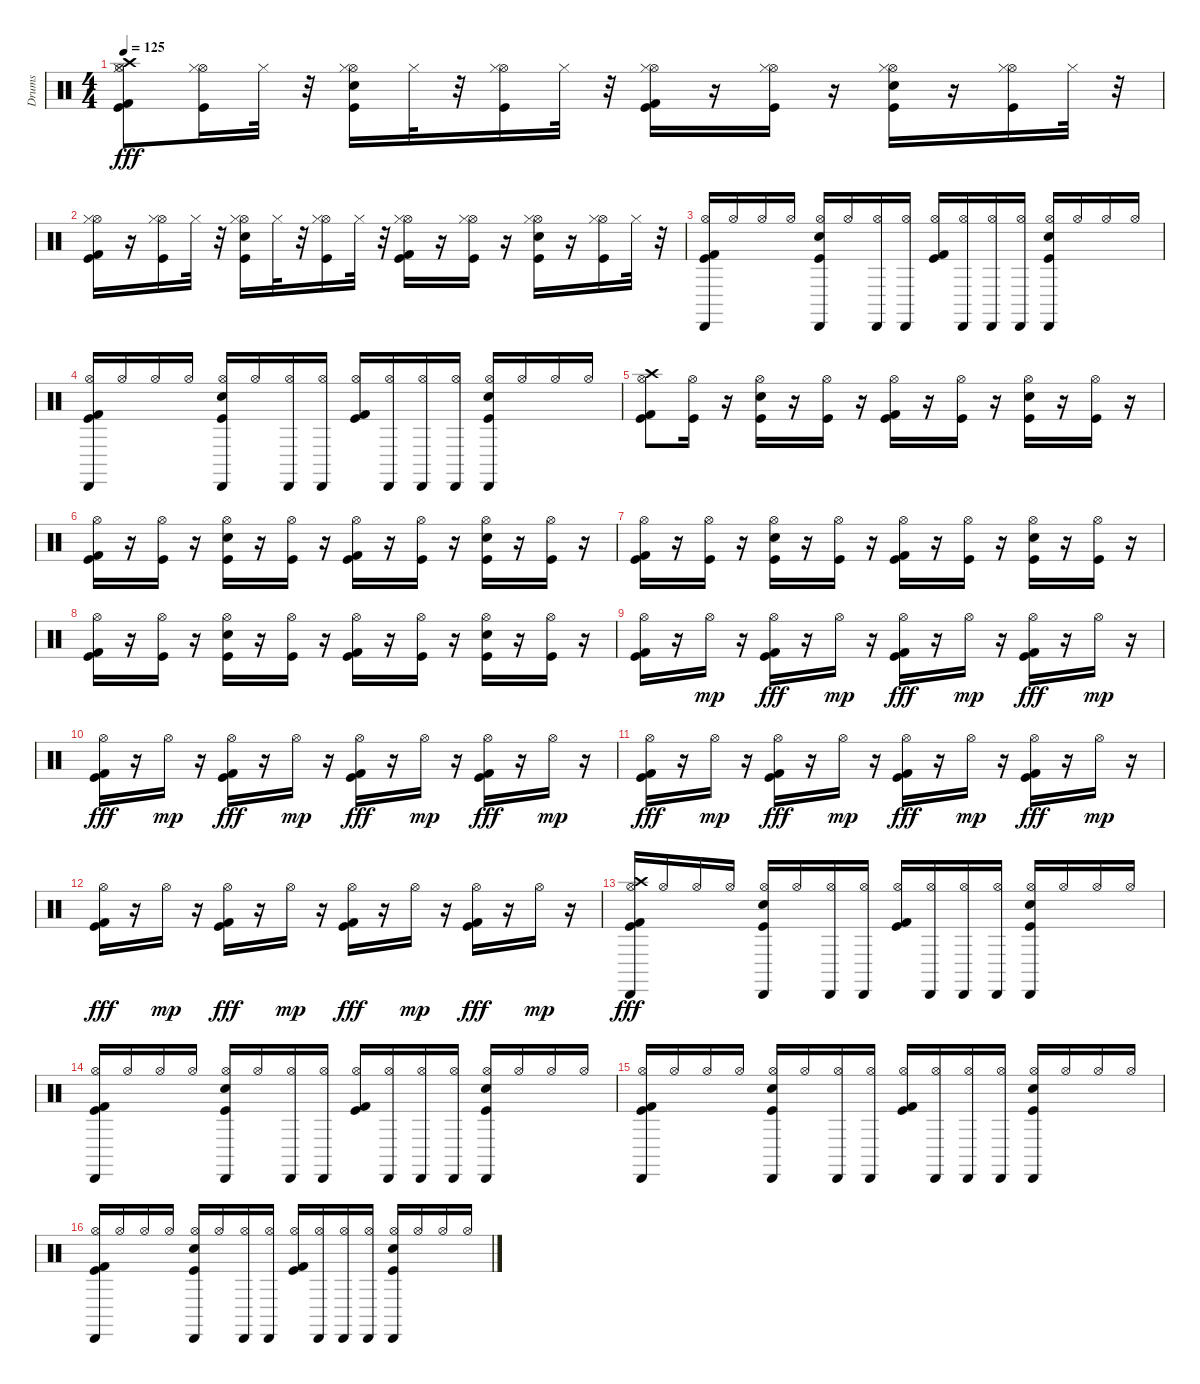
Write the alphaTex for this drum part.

\track ("Drums" "Drums") {instrument percussion}
\staff {score}
\articulation defaults
\ts (4 4)
\tempo 125
\clef neutral
\ks c
("Kick (hit)" "Kick (hit) 2" "Hi-Hat (open)" "Crash high (hit)" "Hi-Hat (closed)").8{dy fff} ("Kick (hit)" "Hi-Hat (open)" "Hi-Hat (closed)").16 "Hi-Hat (closed)".32 r.32 ("Kick (hit)" "Snare (hit) 2" "Hi-Hat (open)" "Hi-Hat (closed)").16 "Hi-Hat (closed)".32 r.32 ("Kick (hit)" "Hi-Hat (open)" "Hi-Hat (closed)").16 "Hi-Hat (closed)".32 r.32 ("Kick (hit)" "Kick (hit) 2" "Hi-Hat (open)" "Hi-Hat (closed)").16 r.16 ("Kick (hit)" "Hi-Hat (open)" "Hi-Hat (closed)").16 r.16 ("Kick (hit)" "Snare (hit) 2" "Hi-Hat (open)" "Hi-Hat (closed)").16 r.16 ("Kick (hit)" "Hi-Hat (open)" "Hi-Hat (closed)").16 "Hi-Hat (closed)".32 r.32 |
("Kick (hit)" "Kick (hit) 2" "Hi-Hat (open)" "Hi-Hat (closed)").16 r.16 ("Kick (hit)" "Hi-Hat (open)" "Hi-Hat (closed)").16 "Hi-Hat (closed)".32 r.32 ("Kick (hit)" "Snare (hit) 2" "Hi-Hat (open)" "Hi-Hat (closed)").16 "Hi-Hat (closed)".32 r.32 ("Kick (hit)" "Hi-Hat (open)" "Hi-Hat (closed)").16 "Hi-Hat (closed)".32 r.32 ("Kick (hit)" "Kick (hit) 2" "Hi-Hat (open)" "Hi-Hat (closed)").16 r.16 ("Kick (hit)" "Hi-Hat (open)" "Hi-Hat (closed)").16 r.16 ("Kick (hit)" "Snare (hit) 2" "Hi-Hat (open)" "Hi-Hat (closed)").16 r.16 ("Kick (hit)" "Hi-Hat (open)" "Hi-Hat (closed)").16 "Hi-Hat (closed)".32 r.32 |
("Kick (hit) 2" "Kick (hit)" "Cabasa (hit)" "Hi-Hat (open)").16 "Hi-Hat (open)".16 "Hi-Hat (open)".16 "Hi-Hat (open)".16 ("Kick (hit)" "Cabasa (hit)" "Snare (hit) 2" "Hi-Hat (open)").16 "Hi-Hat (open)".16 ("Cabasa (hit)" "Hi-Hat (open)").16 ("Cabasa (hit)" "Hi-Hat (open)").16 ("Kick (hit) 2" "Kick (hit)" "Hi-Hat (open)").16 ("Cabasa (hit)" "Hi-Hat (open)").16 ("Cabasa (hit)" "Hi-Hat (open)").16 ("Cabasa (hit)" "Hi-Hat (open)").16 ("Kick (hit)" "Cabasa (hit)" "Snare (hit) 2" "Hi-Hat (open)").16 "Hi-Hat (open)".16 "Hi-Hat (open)".16 "Hi-Hat (open)".16 |
("Kick (hit) 2" "Kick (hit)" "Cabasa (hit)" "Hi-Hat (open)").16 "Hi-Hat (open)".16 "Hi-Hat (open)".16 "Hi-Hat (open)".16 ("Kick (hit)" "Cabasa (hit)" "Snare (hit) 2" "Hi-Hat (open)").16 "Hi-Hat (open)".16 ("Cabasa (hit)" "Hi-Hat (open)").16 ("Cabasa (hit)" "Hi-Hat (open)").16 ("Kick (hit) 2" "Kick (hit)" "Hi-Hat (open)").16 ("Cabasa (hit)" "Hi-Hat (open)").16 ("Cabasa (hit)" "Hi-Hat (open)").16 ("Cabasa (hit)" "Hi-Hat (open)").16 ("Kick (hit)" "Cabasa (hit)" "Snare (hit) 2" "Hi-Hat (open)").16 "Hi-Hat (open)".16 "Hi-Hat (open)".16 "Hi-Hat (open)".16 |
("Kick (hit) 2" "Kick (hit)" "Hi-Hat (open)" "Crash high (hit)").8 ("Kick (hit)" "Hi-Hat (open)").16 r.16 ("Kick (hit)" "Snare (hit) 2" "Hi-Hat (open)").16 r.16 ("Kick (hit)" "Hi-Hat (open)").16 r.16 ("Kick (hit) 2" "Kick (hit)" "Hi-Hat (open)").16 r.16 ("Kick (hit)" "Hi-Hat (open)").16 r.16 ("Kick (hit)" "Snare (hit) 2" "Hi-Hat (open)").16 r.16 ("Kick (hit)" "Hi-Hat (open)").16 r.16 |
("Kick (hit) 2" "Kick (hit)" "Hi-Hat (open)").16 r.16 ("Kick (hit)" "Hi-Hat (open)").16 r.16 ("Kick (hit)" "Snare (hit) 2" "Hi-Hat (open)").16 r.16 ("Kick (hit)" "Hi-Hat (open)").16 r.16 ("Kick (hit) 2" "Kick (hit)" "Hi-Hat (open)").16 r.16 ("Kick (hit)" "Hi-Hat (open)").16 r.16 ("Kick (hit)" "Snare (hit) 2" "Hi-Hat (open)").16 r.16 ("Kick (hit)" "Hi-Hat (open)").16 r.16 |
("Kick (hit) 2" "Kick (hit)" "Hi-Hat (open)").16 r.16 ("Kick (hit)" "Hi-Hat (open)").16 r.16 ("Kick (hit)" "Snare (hit) 2" "Hi-Hat (open)").16 r.16 ("Kick (hit)" "Hi-Hat (open)").16 r.16 ("Kick (hit) 2" "Kick (hit)" "Hi-Hat (open)").16 r.16 ("Kick (hit)" "Hi-Hat (open)").16 r.16 ("Kick (hit)" "Snare (hit) 2" "Hi-Hat (open)").16 r.16 ("Kick (hit)" "Hi-Hat (open)").16 r.16 |
("Kick (hit) 2" "Kick (hit)" "Hi-Hat (open)").16 r.16 ("Kick (hit)" "Hi-Hat (open)").16 r.16 ("Kick (hit)" "Snare (hit) 2" "Hi-Hat (open)").16 r.16 ("Kick (hit)" "Hi-Hat (open)").16 r.16 ("Kick (hit) 2" "Kick (hit)" "Hi-Hat (open)").16 r.16 ("Kick (hit)" "Hi-Hat (open)").16 r.16 ("Kick (hit)" "Snare (hit) 2" "Hi-Hat (open)").16 r.16 ("Kick (hit)" "Hi-Hat (open)").16 r.16 |
("Kick (hit)" "Kick (hit) 2" "Hi-Hat (open)").16 r.16 "Hi-Hat (open)".16{dy mp} r.16 ("Kick (hit) 2" "Kick (hit)" "Hi-Hat (open)").16{dy fff} r.16 "Hi-Hat (open)".16{dy mp} r.16 ("Kick (hit) 2" "Kick (hit)" "Hi-Hat (open)").16{dy fff} r.16 "Hi-Hat (open)".16{dy mp} r.16 ("Kick (hit) 2" "Kick (hit)" "Hi-Hat (open)").16{dy fff} r.16 "Hi-Hat (open)".16{dy mp} r.16 |
("Hi-Hat (open)" "Kick (hit) 2" "Kick (hit)").16{dy fff} r.16 "Hi-Hat (open)".16{dy mp} r.16 ("Kick (hit) 2" "Kick (hit)" "Hi-Hat (open)").16{dy fff} r.16 "Hi-Hat (open)".16{dy mp} r.16 ("Kick (hit) 2" "Kick (hit)" "Hi-Hat (open)").16{dy fff} r.16 "Hi-Hat (open)".16{dy mp} r.16 ("Kick (hit) 2" "Kick (hit)" "Hi-Hat (open)").16{dy fff} r.16 "Hi-Hat (open)".16{dy mp} r.16 |
("Hi-Hat (open)" "Kick (hit) 2" "Kick (hit)").16{dy fff} r.16 "Hi-Hat (open)".16{dy mp} r.16 ("Kick (hit) 2" "Kick (hit)" "Hi-Hat (open)").16{dy fff} r.16 "Hi-Hat (open)".16{dy mp} r.16 ("Kick (hit) 2" "Kick (hit)" "Hi-Hat (open)").16{dy fff} r.16 "Hi-Hat (open)".16{dy mp} r.16 ("Kick (hit) 2" "Kick (hit)" "Hi-Hat (open)").16{dy fff} r.16 "Hi-Hat (open)".16{dy mp} r.16 |
("Hi-Hat (open)" "Kick (hit) 2" "Kick (hit)").16{dy fff} r.16 "Hi-Hat (open)".16{dy mp} r.16 ("Kick (hit) 2" "Kick (hit)" "Hi-Hat (open)").16{dy fff} r.16 "Hi-Hat (open)".16{dy mp} r.16 ("Kick (hit) 2" "Kick (hit)" "Hi-Hat (open)").16{dy fff} r.16 "Hi-Hat (open)".16{dy mp} r.16 ("Kick (hit) 2" "Kick (hit)" "Hi-Hat (open)").16{dy fff} r.16 "Hi-Hat (open)".16{dy mp} r.16 |
("Kick (hit) 2" "Kick (hit)" "Cabasa (hit)" "Crash high (hit)" "Hi-Hat (open)").16{dy fff} "Hi-Hat (open)".16 "Hi-Hat (open)".16 "Hi-Hat (open)".16 ("Kick (hit)" "Cabasa (hit)" "Snare (hit) 2" "Hi-Hat (open)").16 "Hi-Hat (open)".16 ("Cabasa (hit)" "Hi-Hat (open)").16 ("Cabasa (hit)" "Hi-Hat (open)").16 ("Kick (hit) 2" "Kick (hit)" "Hi-Hat (open)").16 ("Cabasa (hit)" "Hi-Hat (open)").16 ("Cabasa (hit)" "Hi-Hat (open)").16 ("Cabasa (hit)" "Hi-Hat (open)").16 ("Kick (hit)" "Cabasa (hit)" "Snare (hit) 2" "Hi-Hat (open)").16 "Hi-Hat (open)".16 "Hi-Hat (open)".16 "Hi-Hat (open)".16 |
("Kick (hit) 2" "Kick (hit)" "Cabasa (hit)" "Hi-Hat (open)").16 "Hi-Hat (open)".16 "Hi-Hat (open)".16 "Hi-Hat (open)".16 ("Kick (hit)" "Cabasa (hit)" "Snare (hit) 2" "Hi-Hat (open)").16 "Hi-Hat (open)".16 ("Cabasa (hit)" "Hi-Hat (open)").16 ("Cabasa (hit)" "Hi-Hat (open)").16 ("Kick (hit) 2" "Kick (hit)" "Hi-Hat (open)").16 ("Cabasa (hit)" "Hi-Hat (open)").16 ("Cabasa (hit)" "Hi-Hat (open)").16 ("Cabasa (hit)" "Hi-Hat (open)").16 ("Kick (hit)" "Cabasa (hit)" "Snare (hit) 2" "Hi-Hat (open)").16 "Hi-Hat (open)".16 "Hi-Hat (open)".16 "Hi-Hat (open)".16 |
("Kick (hit) 2" "Kick (hit)" "Cabasa (hit)" "Hi-Hat (open)").16 "Hi-Hat (open)".16 "Hi-Hat (open)".16 "Hi-Hat (open)".16 ("Kick (hit)" "Cabasa (hit)" "Snare (hit) 2" "Hi-Hat (open)").16 "Hi-Hat (open)".16 ("Cabasa (hit)" "Hi-Hat (open)").16 ("Cabasa (hit)" "Hi-Hat (open)").16 ("Kick (hit) 2" "Kick (hit)" "Hi-Hat (open)").16 ("Cabasa (hit)" "Hi-Hat (open)").16 ("Cabasa (hit)" "Hi-Hat (open)").16 ("Cabasa (hit)" "Hi-Hat (open)").16 ("Kick (hit)" "Cabasa (hit)" "Snare (hit) 2" "Hi-Hat (open)").16 "Hi-Hat (open)".16 "Hi-Hat (open)".16 "Hi-Hat (open)".16 |
("Kick (hit) 2" "Kick (hit)" "Cabasa (hit)" "Hi-Hat (open)").16 "Hi-Hat (open)".16 "Hi-Hat (open)".16 "Hi-Hat (open)".16 ("Kick (hit)" "Cabasa (hit)" "Snare (hit) 2" "Hi-Hat (open)").16 "Hi-Hat (open)".16 ("Cabasa (hit)" "Hi-Hat (open)").16 ("Cabasa (hit)" "Hi-Hat (open)").16 ("Kick (hit) 2" "Kick (hit)" "Hi-Hat (open)").16 ("Cabasa (hit)" "Hi-Hat (open)").16 ("Cabasa (hit)" "Hi-Hat (open)").16 ("Cabasa (hit)" "Hi-Hat (open)").16 ("Kick (hit)" "Cabasa (hit)" "Snare (hit) 2" "Hi-Hat (open)").16 "Hi-Hat (open)".16 "Hi-Hat (open)".16 "Hi-Hat (open)".16
